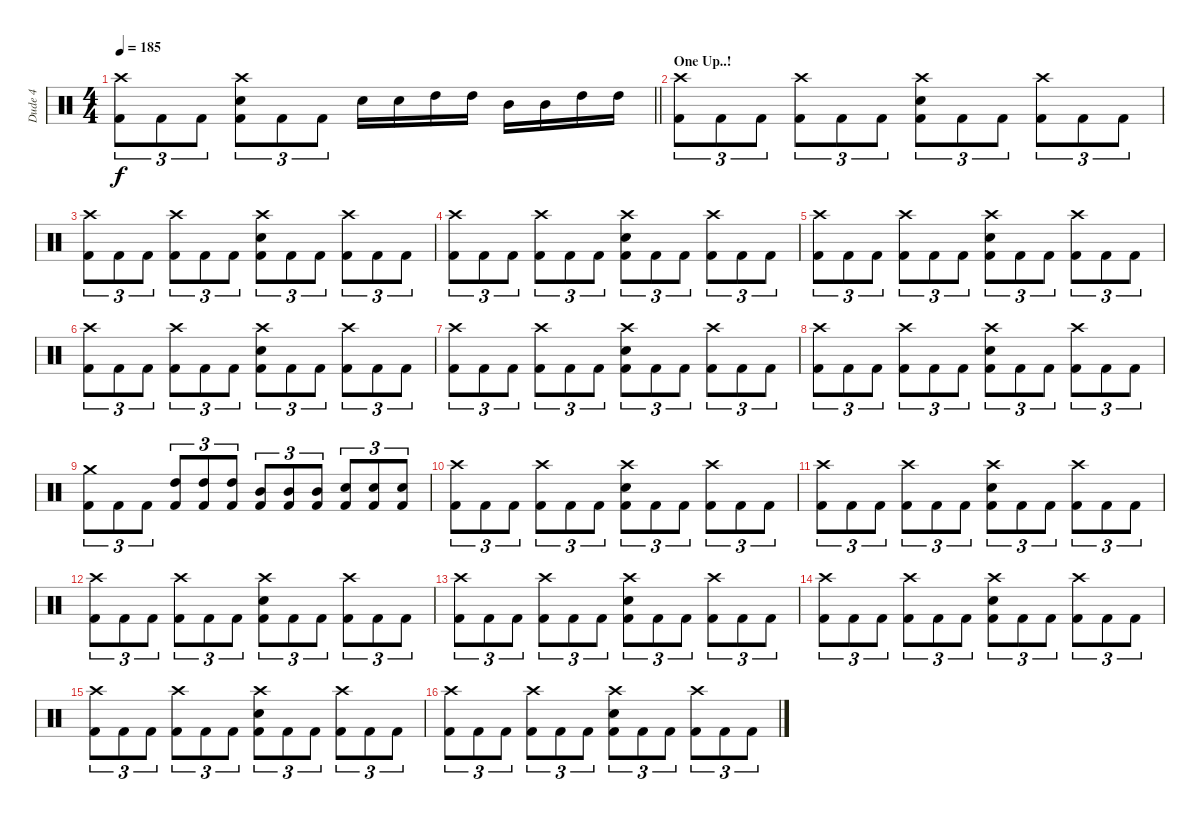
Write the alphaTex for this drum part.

\track ("Dude 4" "Dude 4") {instrument percussion}
\staff {score}
\articulation defaults
\ts (4 4)
\tempo 185
\clef neutral
\barLineRight lightlight
\ks c
("Crash high (hit)" "Kick (hit) 2").8{tu (3 2) dy f} "Kick (hit) 2".8{tu (3 2)} "Kick (hit) 2".8{tu (3 2)} ("Crash high (hit)" "Electric Snare (hit)" "Kick (hit) 2").8{tu (3 2)} "Kick (hit) 2".8{tu (3 2)} "Kick (hit) 2".8{tu (3 2)} "Electric Snare (hit)".16 "Electric Snare (hit)".16 "High Tom (hit)".16 "High Tom (hit)".16 "Mid Tom (hit)".16 "Mid Tom (hit)".16 "High Tom (hit)".16 "High Tom (hit)".16 |
\section ("" "One Up..!")
("Crash high (hit)" "Kick (hit) 2").8{tu (3 2)} "Kick (hit) 2".8{tu (3 2)} "Kick (hit) 2".8{tu (3 2)} ("Crash high (hit)" "Kick (hit) 2").8{tu (3 2)} "Kick (hit) 2".8{tu (3 2)} "Kick (hit) 2".8{tu (3 2)} ("Crash high (hit)" "Electric Snare (hit)" "Kick (hit) 2").8{tu (3 2)} "Kick (hit) 2".8{tu (3 2)} "Kick (hit) 2".8{tu (3 2)} ("Crash high (hit)" "Kick (hit) 2").8{tu (3 2)} "Kick (hit) 2".8{tu (3 2)} "Kick (hit) 2".8{tu (3 2)} |
("Crash high (hit)" "Kick (hit) 2").8{tu (3 2)} "Kick (hit) 2".8{tu (3 2)} "Kick (hit) 2".8{tu (3 2)} ("Crash high (hit)" "Kick (hit) 2").8{tu (3 2)} "Kick (hit) 2".8{tu (3 2)} "Kick (hit) 2".8{tu (3 2)} ("Crash high (hit)" "Electric Snare (hit)" "Kick (hit) 2").8{tu (3 2)} "Kick (hit) 2".8{tu (3 2)} "Kick (hit) 2".8{tu (3 2)} ("Crash high (hit)" "Kick (hit) 2").8{tu (3 2)} "Kick (hit) 2".8{tu (3 2)} "Kick (hit) 2".8{tu (3 2)} |
("Crash high (hit)" "Kick (hit) 2").8{tu (3 2)} "Kick (hit) 2".8{tu (3 2)} "Kick (hit) 2".8{tu (3 2)} ("Crash high (hit)" "Kick (hit) 2").8{tu (3 2)} "Kick (hit) 2".8{tu (3 2)} "Kick (hit) 2".8{tu (3 2)} ("Crash high (hit)" "Electric Snare (hit)" "Kick (hit) 2").8{tu (3 2)} "Kick (hit) 2".8{tu (3 2)} "Kick (hit) 2".8{tu (3 2)} ("Crash high (hit)" "Kick (hit) 2").8{tu (3 2)} "Kick (hit) 2".8{tu (3 2)} "Kick (hit) 2".8{tu (3 2)} |
("Crash high (hit)" "Kick (hit) 2").8{tu (3 2)} "Kick (hit) 2".8{tu (3 2)} "Kick (hit) 2".8{tu (3 2)} ("Crash high (hit)" "Kick (hit) 2").8{tu (3 2)} "Kick (hit) 2".8{tu (3 2)} "Kick (hit) 2".8{tu (3 2)} ("Crash high (hit)" "Electric Snare (hit)" "Kick (hit) 2").8{tu (3 2)} "Kick (hit) 2".8{tu (3 2)} "Kick (hit) 2".8{tu (3 2)} ("Crash high (hit)" "Kick (hit) 2").8{tu (3 2)} "Kick (hit) 2".8{tu (3 2)} "Kick (hit) 2".8{tu (3 2)} |
("Crash high (hit)" "Kick (hit) 2").8{tu (3 2)} "Kick (hit) 2".8{tu (3 2)} "Kick (hit) 2".8{tu (3 2)} ("Crash high (hit)" "Kick (hit) 2").8{tu (3 2)} "Kick (hit) 2".8{tu (3 2)} "Kick (hit) 2".8{tu (3 2)} ("Crash high (hit)" "Electric Snare (hit)" "Kick (hit) 2").8{tu (3 2)} "Kick (hit) 2".8{tu (3 2)} "Kick (hit) 2".8{tu (3 2)} ("Crash high (hit)" "Kick (hit) 2").8{tu (3 2)} "Kick (hit) 2".8{tu (3 2)} "Kick (hit) 2".8{tu (3 2)} |
("Crash high (hit)" "Kick (hit) 2").8{tu (3 2)} "Kick (hit) 2".8{tu (3 2)} "Kick (hit) 2".8{tu (3 2)} ("Crash high (hit)" "Kick (hit) 2").8{tu (3 2)} "Kick (hit) 2".8{tu (3 2)} "Kick (hit) 2".8{tu (3 2)} ("Crash high (hit)" "Electric Snare (hit)" "Kick (hit) 2").8{tu (3 2)} "Kick (hit) 2".8{tu (3 2)} "Kick (hit) 2".8{tu (3 2)} ("Crash high (hit)" "Kick (hit) 2").8{tu (3 2)} "Kick (hit) 2".8{tu (3 2)} "Kick (hit) 2".8{tu (3 2)} |
("Crash high (hit)" "Kick (hit) 2").8{tu (3 2)} "Kick (hit) 2".8{tu (3 2)} "Kick (hit) 2".8{tu (3 2)} ("Crash high (hit)" "Kick (hit) 2").8{tu (3 2)} "Kick (hit) 2".8{tu (3 2)} "Kick (hit) 2".8{tu (3 2)} ("Crash high (hit)" "Electric Snare (hit)" "Kick (hit) 2").8{tu (3 2)} "Kick (hit) 2".8{tu (3 2)} "Kick (hit) 2".8{tu (3 2)} ("Crash high (hit)" "Kick (hit) 2").8{tu (3 2)} "Kick (hit) 2".8{tu (3 2)} "Kick (hit) 2".8{tu (3 2)} |
("Crash medium (hit)" "Kick (hit) 2").8{tu (3 2)} "Kick (hit) 2".8{tu (3 2)} "Kick (hit) 2".8{tu (3 2)} ("High Tom (hit)" "Kick (hit) 2").8{tu (3 2)} ("High Tom (hit)" "Kick (hit) 2").8{tu (3 2)} ("High Tom (hit)" "Kick (hit) 2").8{tu (3 2)} ("Mid Tom (hit)" "Kick (hit) 2").8{tu (3 2)} ("Mid Tom (hit)" "Kick (hit) 2").8{tu (3 2)} ("Mid Tom (hit)" "Kick (hit) 2").8{tu (3 2)} ("Electric Snare (hit)" "Kick (hit) 2").8{tu (3 2)} ("Electric Snare (hit)" "Kick (hit) 2").8{tu (3 2)} ("Electric Snare (hit)" "Kick (hit) 2").8{tu (3 2)} |
("Crash high (hit)" "Kick (hit) 2").8{tu (3 2)} "Kick (hit) 2".8{tu (3 2)} "Kick (hit) 2".8{tu (3 2)} ("Crash high (hit)" "Kick (hit) 2").8{tu (3 2)} "Kick (hit) 2".8{tu (3 2)} "Kick (hit) 2".8{tu (3 2)} ("Crash high (hit)" "Electric Snare (hit)" "Kick (hit) 2").8{tu (3 2)} "Kick (hit) 2".8{tu (3 2)} "Kick (hit) 2".8{tu (3 2)} ("Crash high (hit)" "Kick (hit) 2").8{tu (3 2)} "Kick (hit) 2".8{tu (3 2)} "Kick (hit) 2".8{tu (3 2)} |
("Crash high (hit)" "Kick (hit) 2").8{tu (3 2)} "Kick (hit) 2".8{tu (3 2)} "Kick (hit) 2".8{tu (3 2)} ("Crash high (hit)" "Kick (hit) 2").8{tu (3 2)} "Kick (hit) 2".8{tu (3 2)} "Kick (hit) 2".8{tu (3 2)} ("Crash high (hit)" "Electric Snare (hit)" "Kick (hit) 2").8{tu (3 2)} "Kick (hit) 2".8{tu (3 2)} "Kick (hit) 2".8{tu (3 2)} ("Crash high (hit)" "Kick (hit) 2").8{tu (3 2)} "Kick (hit) 2".8{tu (3 2)} "Kick (hit) 2".8{tu (3 2)} |
("Crash high (hit)" "Kick (hit) 2").8{tu (3 2)} "Kick (hit) 2".8{tu (3 2)} "Kick (hit) 2".8{tu (3 2)} ("Crash high (hit)" "Kick (hit) 2").8{tu (3 2)} "Kick (hit) 2".8{tu (3 2)} "Kick (hit) 2".8{tu (3 2)} ("Crash high (hit)" "Electric Snare (hit)" "Kick (hit) 2").8{tu (3 2)} "Kick (hit) 2".8{tu (3 2)} "Kick (hit) 2".8{tu (3 2)} ("Crash high (hit)" "Kick (hit) 2").8{tu (3 2)} "Kick (hit) 2".8{tu (3 2)} "Kick (hit) 2".8{tu (3 2)} |
("Crash high (hit)" "Kick (hit) 2").8{tu (3 2)} "Kick (hit) 2".8{tu (3 2)} "Kick (hit) 2".8{tu (3 2)} ("Crash high (hit)" "Kick (hit) 2").8{tu (3 2)} "Kick (hit) 2".8{tu (3 2)} "Kick (hit) 2".8{tu (3 2)} ("Crash high (hit)" "Electric Snare (hit)" "Kick (hit) 2").8{tu (3 2)} "Kick (hit) 2".8{tu (3 2)} "Kick (hit) 2".8{tu (3 2)} ("Crash high (hit)" "Kick (hit) 2").8{tu (3 2)} "Kick (hit) 2".8{tu (3 2)} "Kick (hit) 2".8{tu (3 2)} |
("Crash high (hit)" "Kick (hit) 2").8{tu (3 2)} "Kick (hit) 2".8{tu (3 2)} "Kick (hit) 2".8{tu (3 2)} ("Crash high (hit)" "Kick (hit) 2").8{tu (3 2)} "Kick (hit) 2".8{tu (3 2)} "Kick (hit) 2".8{tu (3 2)} ("Crash high (hit)" "Electric Snare (hit)" "Kick (hit) 2").8{tu (3 2)} "Kick (hit) 2".8{tu (3 2)} "Kick (hit) 2".8{tu (3 2)} ("Crash high (hit)" "Kick (hit) 2").8{tu (3 2)} "Kick (hit) 2".8{tu (3 2)} "Kick (hit) 2".8{tu (3 2)} |
("Crash high (hit)" "Kick (hit) 2").8{tu (3 2)} "Kick (hit) 2".8{tu (3 2)} "Kick (hit) 2".8{tu (3 2)} ("Crash high (hit)" "Kick (hit) 2").8{tu (3 2)} "Kick (hit) 2".8{tu (3 2)} "Kick (hit) 2".8{tu (3 2)} ("Crash high (hit)" "Electric Snare (hit)" "Kick (hit) 2").8{tu (3 2)} "Kick (hit) 2".8{tu (3 2)} "Kick (hit) 2".8{tu (3 2)} ("Crash high (hit)" "Kick (hit) 2").8{tu (3 2)} "Kick (hit) 2".8{tu (3 2)} "Kick (hit) 2".8{tu (3 2)} |
("Crash high (hit)" "Kick (hit) 2").8{tu (3 2)} "Kick (hit) 2".8{tu (3 2)} "Kick (hit) 2".8{tu (3 2)} ("Crash high (hit)" "Kick (hit) 2").8{tu (3 2)} "Kick (hit) 2".8{tu (3 2)} "Kick (hit) 2".8{tu (3 2)} ("Crash high (hit)" "Electric Snare (hit)" "Kick (hit) 2").8{tu (3 2)} "Kick (hit) 2".8{tu (3 2)} "Kick (hit) 2".8{tu (3 2)} ("Crash high (hit)" "Kick (hit) 2").8{tu (3 2)} "Kick (hit) 2".8{tu (3 2)} "Kick (hit) 2".8{tu (3 2)}
